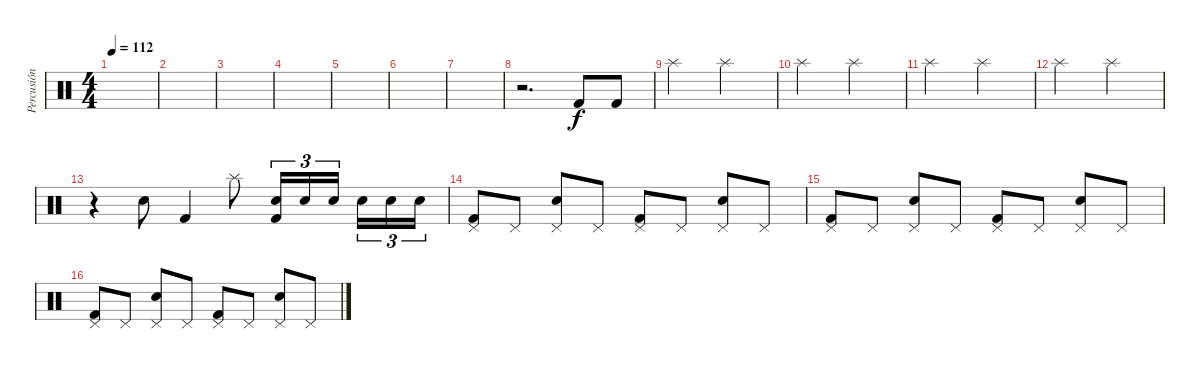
\track ("Percusión" "Percusión") {instrument percussion}
\staff {score}
\articulation defaults
\ts (4 4)
\tempo 112
\clef neutral
\ks c
|
|
|
|
|
|
|
r.2{d} "Kick (hit) 2".8 "Kick (hit) 2".8 |
"Splash (hit)".2 "Splash (hit)".2 |
"Splash (hit)".2 "Splash (hit)".2 |
"Splash (hit)".2 "Splash (hit)".2 |
"Splash (hit)".2 "Splash (hit)".2 |
r.4 "Snare (hit) 2".8 "Kick (hit) 2".4 "Splash (hit)".8 ("Snare (hit) 2" "Kick (hit) 2").16{tu (3 2)} "Snare (hit) 2".16{tu (3 2)} "Snare (hit) 2".16{tu (3 2) beam splitsecondary} "Snare (hit) 2".16{tu (3 2)} "Snare (hit) 2".16{tu (3 2)} "Snare (hit) 2".16{tu (3 2)} |
("Pedal Hi-Hat (hit)" "Kick (hit) 2").8 "Pedal Hi-Hat (hit)".8 ("Snare (hit) 2" "Pedal Hi-Hat (hit)").8 "Pedal Hi-Hat (hit)".8 ("Pedal Hi-Hat (hit)" "Kick (hit) 2").8 "Pedal Hi-Hat (hit)".8 ("Snare (hit) 2" "Pedal Hi-Hat (hit)").8 "Pedal Hi-Hat (hit)".8 |
("Pedal Hi-Hat (hit)" "Kick (hit) 2").8 "Pedal Hi-Hat (hit)".8 ("Snare (hit) 2" "Pedal Hi-Hat (hit)").8 "Pedal Hi-Hat (hit)".8 ("Pedal Hi-Hat (hit)" "Kick (hit) 2").8 "Pedal Hi-Hat (hit)".8 ("Snare (hit) 2" "Pedal Hi-Hat (hit)").8 "Pedal Hi-Hat (hit)".8 |
("Pedal Hi-Hat (hit)" "Kick (hit) 2").8 "Pedal Hi-Hat (hit)".8 ("Snare (hit) 2" "Pedal Hi-Hat (hit)").8 "Pedal Hi-Hat (hit)".8 ("Pedal Hi-Hat (hit)" "Kick (hit) 2").8 "Pedal Hi-Hat (hit)".8 ("Snare (hit) 2" "Pedal Hi-Hat (hit)").8 "Pedal Hi-Hat (hit)".8
